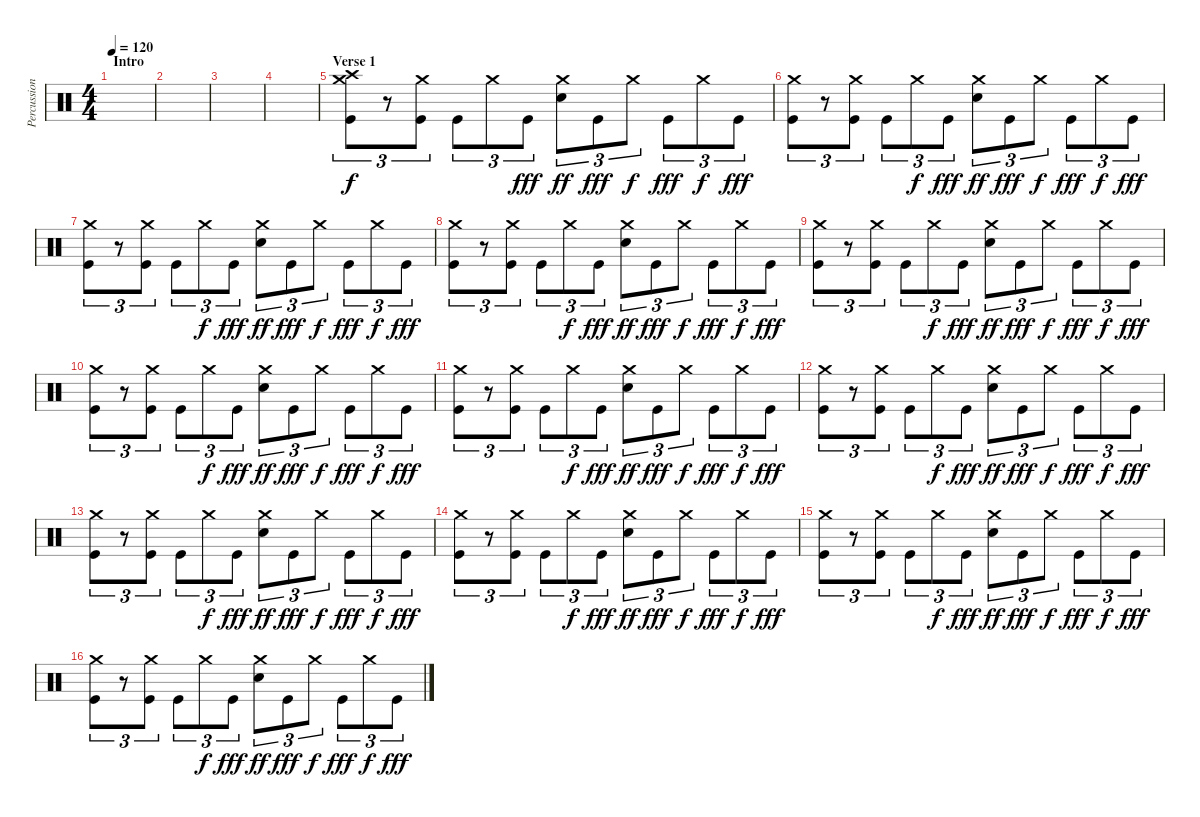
\track ("Percussion" "Percussion") {instrument percussion}
\staff {score}
\articulation defaults
\ts (4 4)
\section ("" "Intro")
\tempo 120
\clef neutral
\ks c
|
|
|
|
\section ("" "Verse 1")
("Crash high (hit)" "Crash medium (hit)" "Kick (hit)").8{tu (3 2)} r.8{tu (3 2)} ("Crash medium (hit)" "Kick (hit)").8{tu (3 2)} "Kick (hit)".8{tu (3 2)} "Crash medium (hit)".8{tu (3 2) dy f} "Kick (hit)".8{tu (3 2) dy fff} ("Crash medium (hit)" "Snare (hit) 2").8{tu (3 2) dy ff} "Kick (hit)".8{tu (3 2) dy fff} "Crash medium (hit)".8{tu (3 2) dy f} "Kick (hit)".8{tu (3 2) dy fff} "Crash medium (hit)".8{tu (3 2) dy f} "Kick (hit)".8{tu (3 2) dy fff} |
("Crash medium (hit)" "Kick (hit)").8{tu (3 2)} r.8{tu (3 2)} ("Crash medium (hit)" "Kick (hit)").8{tu (3 2)} "Kick (hit)".8{tu (3 2)} "Crash medium (hit)".8{tu (3 2) dy f} "Kick (hit)".8{tu (3 2) dy fff} ("Crash medium (hit)" "Snare (hit) 2").8{tu (3 2) dy ff} "Kick (hit)".8{tu (3 2) dy fff} "Crash medium (hit)".8{tu (3 2) dy f} "Kick (hit)".8{tu (3 2) dy fff} "Crash medium (hit)".8{tu (3 2) dy f} "Kick (hit)".8{tu (3 2) dy fff} |
("Crash medium (hit)" "Kick (hit)").8{tu (3 2)} r.8{tu (3 2)} ("Crash medium (hit)" "Kick (hit)").8{tu (3 2)} "Kick (hit)".8{tu (3 2)} "Crash medium (hit)".8{tu (3 2) dy f} "Kick (hit)".8{tu (3 2) dy fff} ("Crash medium (hit)" "Snare (hit) 2").8{tu (3 2) dy ff} "Kick (hit)".8{tu (3 2) dy fff} "Crash medium (hit)".8{tu (3 2) dy f} "Kick (hit)".8{tu (3 2) dy fff} "Crash medium (hit)".8{tu (3 2) dy f} "Kick (hit)".8{tu (3 2) dy fff} |
("Crash medium (hit)" "Kick (hit)").8{tu (3 2)} r.8{tu (3 2)} ("Crash medium (hit)" "Kick (hit)").8{tu (3 2)} "Kick (hit)".8{tu (3 2)} "Crash medium (hit)".8{tu (3 2) dy f} "Kick (hit)".8{tu (3 2) dy fff} ("Crash medium (hit)" "Snare (hit) 2").8{tu (3 2) dy ff} "Kick (hit)".8{tu (3 2) dy fff} "Crash medium (hit)".8{tu (3 2) dy f} "Kick (hit)".8{tu (3 2) dy fff} "Crash medium (hit)".8{tu (3 2) dy f} "Kick (hit)".8{tu (3 2) dy fff} |
("Crash medium (hit)" "Kick (hit)").8{tu (3 2)} r.8{tu (3 2)} ("Crash medium (hit)" "Kick (hit)").8{tu (3 2)} "Kick (hit)".8{tu (3 2)} "Crash medium (hit)".8{tu (3 2) dy f} "Kick (hit)".8{tu (3 2) dy fff} ("Crash medium (hit)" "Snare (hit) 2").8{tu (3 2) dy ff} "Kick (hit)".8{tu (3 2) dy fff} "Crash medium (hit)".8{tu (3 2) dy f} "Kick (hit)".8{tu (3 2) dy fff} "Crash medium (hit)".8{tu (3 2) dy f} "Kick (hit)".8{tu (3 2) dy fff} |
("Crash medium (hit)" "Kick (hit)").8{tu (3 2)} r.8{tu (3 2)} ("Crash medium (hit)" "Kick (hit)").8{tu (3 2)} "Kick (hit)".8{tu (3 2)} "Crash medium (hit)".8{tu (3 2) dy f} "Kick (hit)".8{tu (3 2) dy fff} ("Crash medium (hit)" "Snare (hit) 2").8{tu (3 2) dy ff} "Kick (hit)".8{tu (3 2) dy fff} "Crash medium (hit)".8{tu (3 2) dy f} "Kick (hit)".8{tu (3 2) dy fff} "Crash medium (hit)".8{tu (3 2) dy f} "Kick (hit)".8{tu (3 2) dy fff} |
("Crash medium (hit)" "Kick (hit)").8{tu (3 2)} r.8{tu (3 2)} ("Crash medium (hit)" "Kick (hit)").8{tu (3 2)} "Kick (hit)".8{tu (3 2)} "Crash medium (hit)".8{tu (3 2) dy f} "Kick (hit)".8{tu (3 2) dy fff} ("Crash medium (hit)" "Snare (hit) 2").8{tu (3 2) dy ff} "Kick (hit)".8{tu (3 2) dy fff} "Crash medium (hit)".8{tu (3 2) dy f} "Kick (hit)".8{tu (3 2) dy fff} "Crash medium (hit)".8{tu (3 2) dy f} "Kick (hit)".8{tu (3 2) dy fff} |
("Crash medium (hit)" "Kick (hit)").8{tu (3 2)} r.8{tu (3 2)} ("Crash medium (hit)" "Kick (hit)").8{tu (3 2)} "Kick (hit)".8{tu (3 2)} "Crash medium (hit)".8{tu (3 2) dy f} "Kick (hit)".8{tu (3 2) dy fff} ("Crash medium (hit)" "Snare (hit) 2").8{tu (3 2) dy ff} "Kick (hit)".8{tu (3 2) dy fff} "Crash medium (hit)".8{tu (3 2) dy f} "Kick (hit)".8{tu (3 2) dy fff} "Crash medium (hit)".8{tu (3 2) dy f} "Kick (hit)".8{tu (3 2) dy fff} |
("Crash medium (hit)" "Kick (hit)").8{tu (3 2)} r.8{tu (3 2)} ("Crash medium (hit)" "Kick (hit)").8{tu (3 2)} "Kick (hit)".8{tu (3 2)} "Crash medium (hit)".8{tu (3 2) dy f} "Kick (hit)".8{tu (3 2) dy fff} ("Crash medium (hit)" "Snare (hit) 2").8{tu (3 2) dy ff} "Kick (hit)".8{tu (3 2) dy fff} "Crash medium (hit)".8{tu (3 2) dy f} "Kick (hit)".8{tu (3 2) dy fff} "Crash medium (hit)".8{tu (3 2) dy f} "Kick (hit)".8{tu (3 2) dy fff} |
("Crash medium (hit)" "Kick (hit)").8{tu (3 2)} r.8{tu (3 2)} ("Crash medium (hit)" "Kick (hit)").8{tu (3 2)} "Kick (hit)".8{tu (3 2)} "Crash medium (hit)".8{tu (3 2) dy f} "Kick (hit)".8{tu (3 2) dy fff} ("Crash medium (hit)" "Snare (hit) 2").8{tu (3 2) dy ff} "Kick (hit)".8{tu (3 2) dy fff} "Crash medium (hit)".8{tu (3 2) dy f} "Kick (hit)".8{tu (3 2) dy fff} "Crash medium (hit)".8{tu (3 2) dy f} "Kick (hit)".8{tu (3 2) dy fff} |
("Crash medium (hit)" "Kick (hit)").8{tu (3 2)} r.8{tu (3 2)} ("Crash medium (hit)" "Kick (hit)").8{tu (3 2)} "Kick (hit)".8{tu (3 2)} "Crash medium (hit)".8{tu (3 2) dy f} "Kick (hit)".8{tu (3 2) dy fff} ("Crash medium (hit)" "Snare (hit) 2").8{tu (3 2) dy ff} "Kick (hit)".8{tu (3 2) dy fff} "Crash medium (hit)".8{tu (3 2) dy f} "Kick (hit)".8{tu (3 2) dy fff} "Crash medium (hit)".8{tu (3 2) dy f} "Kick (hit)".8{tu (3 2) dy fff} |
("Crash medium (hit)" "Kick (hit)").8{tu (3 2)} r.8{tu (3 2)} ("Crash medium (hit)" "Kick (hit)").8{tu (3 2)} "Kick (hit)".8{tu (3 2)} "Crash medium (hit)".8{tu (3 2) dy f} "Kick (hit)".8{tu (3 2) dy fff} ("Crash medium (hit)" "Snare (hit) 2").8{tu (3 2) dy ff} "Kick (hit)".8{tu (3 2) dy fff} "Crash medium (hit)".8{tu (3 2) dy f} "Kick (hit)".8{tu (3 2) dy fff} "Crash medium (hit)".8{tu (3 2) dy f} "Kick (hit)".8{tu (3 2) dy fff}
